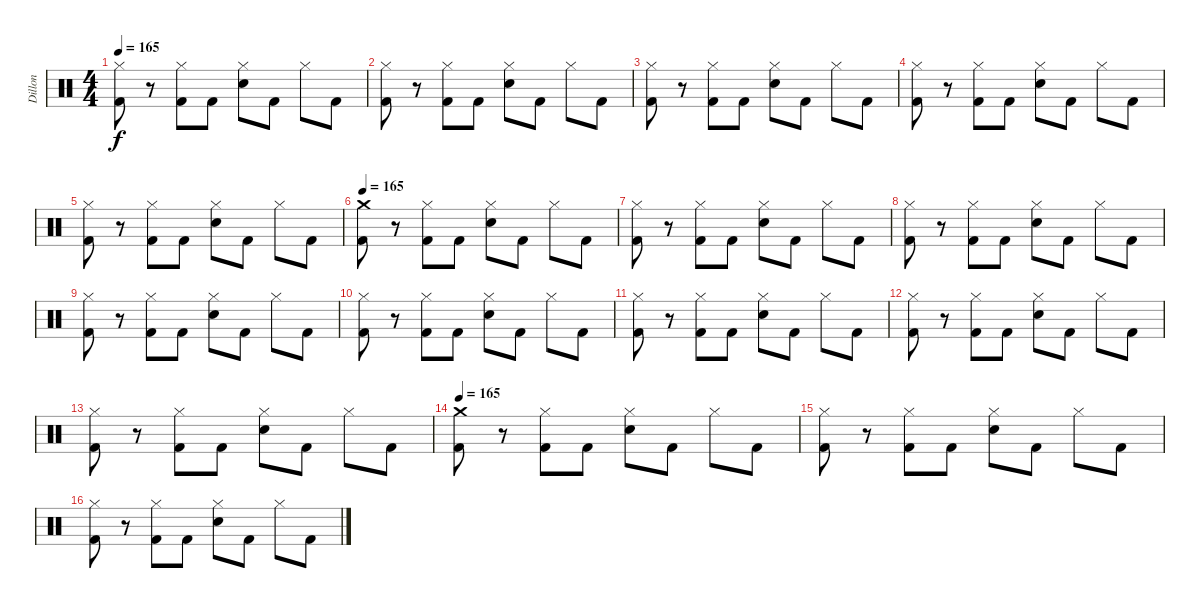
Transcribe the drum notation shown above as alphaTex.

\track ("Dillon" "Dillon") {instrument percussion}
\staff {score}
\articulation defaults
\ts (4 4)
\tempo 165
\clef neutral
\ks c
("Hi-Hat (closed)" "Kick (hit) 2").8{dy f} r.8 ("Hi-Hat (closed)" "Kick (hit) 2").8 "Kick (hit) 2".8 ("Hi-Hat (closed)" "Electric Snare (hit)").8 "Kick (hit) 2".8 "Hi-Hat (closed)".8 "Kick (hit) 2".8 |
("Hi-Hat (closed)" "Kick (hit) 2").8 r.8 ("Hi-Hat (closed)" "Kick (hit) 2").8 "Kick (hit) 2".8 ("Hi-Hat (closed)" "Electric Snare (hit)").8 "Kick (hit) 2".8 "Hi-Hat (closed)".8 "Kick (hit) 2".8 |
("Hi-Hat (closed)" "Kick (hit) 2").8 r.8 ("Hi-Hat (closed)" "Kick (hit) 2").8 "Kick (hit) 2".8 ("Hi-Hat (closed)" "Electric Snare (hit)").8 "Kick (hit) 2".8 "Hi-Hat (closed)".8 "Kick (hit) 2".8 |
("Hi-Hat (closed)" "Kick (hit) 2").8 r.8 ("Hi-Hat (closed)" "Kick (hit) 2").8 "Kick (hit) 2".8 ("Hi-Hat (closed)" "Electric Snare (hit)").8 "Kick (hit) 2".8 "Hi-Hat (closed)".8 "Kick (hit) 2".8 |
("Hi-Hat (closed)" "Kick (hit) 2").8 r.8 ("Hi-Hat (closed)" "Kick (hit) 2").8 "Kick (hit) 2".8 ("Hi-Hat (closed)" "Electric Snare (hit)").8 "Kick (hit) 2".8 "Hi-Hat (closed)".8 "Kick (hit) 2".8 |
\tempo 165
("Crash medium (hit)" "Kick (hit) 2").8 r.8 ("Hi-Hat (closed)" "Kick (hit) 2").8 "Kick (hit) 2".8 ("Hi-Hat (closed)" "Electric Snare (hit)").8 "Kick (hit) 2".8 "Hi-Hat (closed)".8 "Kick (hit) 2".8 |
("Hi-Hat (closed)" "Kick (hit) 2").8 r.8 ("Hi-Hat (closed)" "Kick (hit) 2").8 "Kick (hit) 2".8 ("Hi-Hat (closed)" "Electric Snare (hit)").8 "Kick (hit) 2".8 "Hi-Hat (closed)".8 "Kick (hit) 2".8 |
("Hi-Hat (closed)" "Kick (hit) 2").8 r.8 ("Hi-Hat (closed)" "Kick (hit) 2").8 "Kick (hit) 2".8 ("Hi-Hat (closed)" "Electric Snare (hit)").8 "Kick (hit) 2".8 "Hi-Hat (closed)".8 "Kick (hit) 2".8 |
("Hi-Hat (closed)" "Kick (hit) 2").8 r.8 ("Hi-Hat (closed)" "Kick (hit) 2").8 "Kick (hit) 2".8 ("Hi-Hat (closed)" "Electric Snare (hit)").8 "Kick (hit) 2".8 "Hi-Hat (closed)".8 "Kick (hit) 2".8 |
("Hi-Hat (closed)" "Kick (hit) 2").8 r.8 ("Hi-Hat (closed)" "Kick (hit) 2").8 "Kick (hit) 2".8 ("Hi-Hat (closed)" "Electric Snare (hit)").8 "Kick (hit) 2".8 "Hi-Hat (closed)".8 "Kick (hit) 2".8 |
("Hi-Hat (closed)" "Kick (hit) 2").8 r.8 ("Hi-Hat (closed)" "Kick (hit) 2").8 "Kick (hit) 2".8 ("Hi-Hat (closed)" "Electric Snare (hit)").8 "Kick (hit) 2".8 "Hi-Hat (closed)".8 "Kick (hit) 2".8 |
("Hi-Hat (closed)" "Kick (hit) 2").8 r.8 ("Hi-Hat (closed)" "Kick (hit) 2").8 "Kick (hit) 2".8 ("Hi-Hat (closed)" "Electric Snare (hit)").8 "Kick (hit) 2".8 "Hi-Hat (closed)".8 "Kick (hit) 2".8 |
("Hi-Hat (closed)" "Kick (hit) 2").8 r.8 ("Hi-Hat (closed)" "Kick (hit) 2").8 "Kick (hit) 2".8 ("Hi-Hat (closed)" "Electric Snare (hit)").8 "Kick (hit) 2".8 "Hi-Hat (closed)".8 "Kick (hit) 2".8 |
\tempo 165
("Crash medium (hit)" "Kick (hit) 2").8 r.8 ("Hi-Hat (closed)" "Kick (hit) 2").8 "Kick (hit) 2".8 ("Hi-Hat (closed)" "Electric Snare (hit)").8 "Kick (hit) 2".8 "Hi-Hat (closed)".8 "Kick (hit) 2".8 |
("Hi-Hat (closed)" "Kick (hit) 2").8 r.8 ("Hi-Hat (closed)" "Kick (hit) 2").8 "Kick (hit) 2".8 ("Hi-Hat (closed)" "Electric Snare (hit)").8 "Kick (hit) 2".8 "Hi-Hat (closed)".8 "Kick (hit) 2".8 |
("Hi-Hat (closed)" "Kick (hit) 2").8 r.8 ("Hi-Hat (closed)" "Kick (hit) 2").8 "Kick (hit) 2".8 ("Hi-Hat (closed)" "Electric Snare (hit)").8 "Kick (hit) 2".8 "Hi-Hat (closed)".8 "Kick (hit) 2".8
